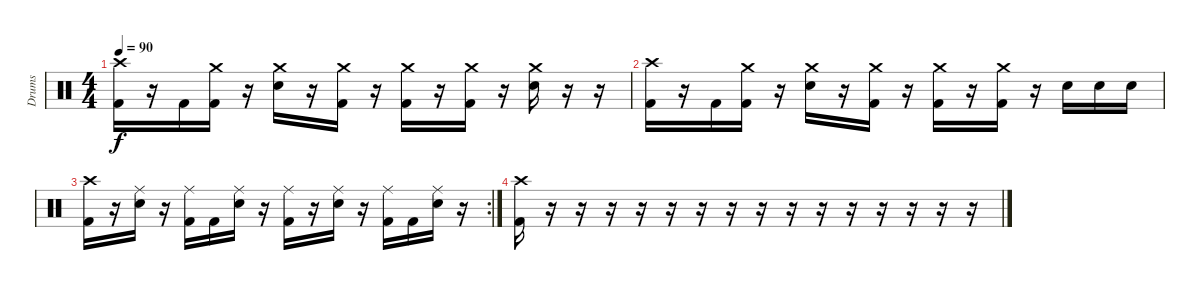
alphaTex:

\track ("Drums" "Drums") {instrument percussion}
\staff {score}
\articulation defaults
\ts (4 4)
\tempo 90
\clef neutral
\ks c
("Crash high (hit)" "Kick (hit) 2").16{dy f} r.16 "Kick (hit) 2".16 ("Crash medium (hit)" "Kick (hit) 2").16 r.16 ("Crash medium (hit)" "Electric Snare (hit)").16 r.16 ("Crash medium (hit)" "Kick (hit) 2").16 r.16 ("Crash medium (hit)" "Kick (hit) 2").16 r.16 ("Crash medium (hit)" "Kick (hit) 2").16 r.16 ("Crash medium (hit)" "Electric Snare (hit)").16 r.16 r.16 |
("Crash high (hit)" "Kick (hit) 2").16 r.16 "Kick (hit) 2".16 ("Crash medium (hit)" "Kick (hit) 2").16 r.16 ("Crash medium (hit)" "Electric Snare (hit)").16 r.16 ("Crash medium (hit)" "Kick (hit) 2").16 r.16 ("Crash medium (hit)" "Kick (hit) 2").16 r.16 ("Crash medium (hit)" "Kick (hit) 2").16 r.16 "Electric Snare (hit)".16 "Electric Snare (hit)".16 "Electric Snare (hit)".16 |
\rc 2
("Crash high (hit)" "Kick (hit) 2").16 r.16 ("Ride (middle)" "Electric Snare (hit)").16 r.16 ("Ride (middle)" "Kick (hit) 2").16 "Kick (hit) 2".16 ("Ride (middle)" "Electric Snare (hit)").16 r.16 ("Ride (middle)" "Kick (hit) 2").16 r.16 ("Ride (middle)" "Electric Snare (hit)").16 r.16 ("Ride (middle)" "Kick (hit) 2").16 "Kick (hit) 2".16 ("Ride (middle)" "Electric Snare (hit)").16 r.16 |
("Crash high (hit)" "Kick (hit) 2").16 r.16 r.16 r.16 r.16 r.16 r.16 r.16 r.16 r.16 r.16 r.16 r.16 r.16 r.16 r.16
